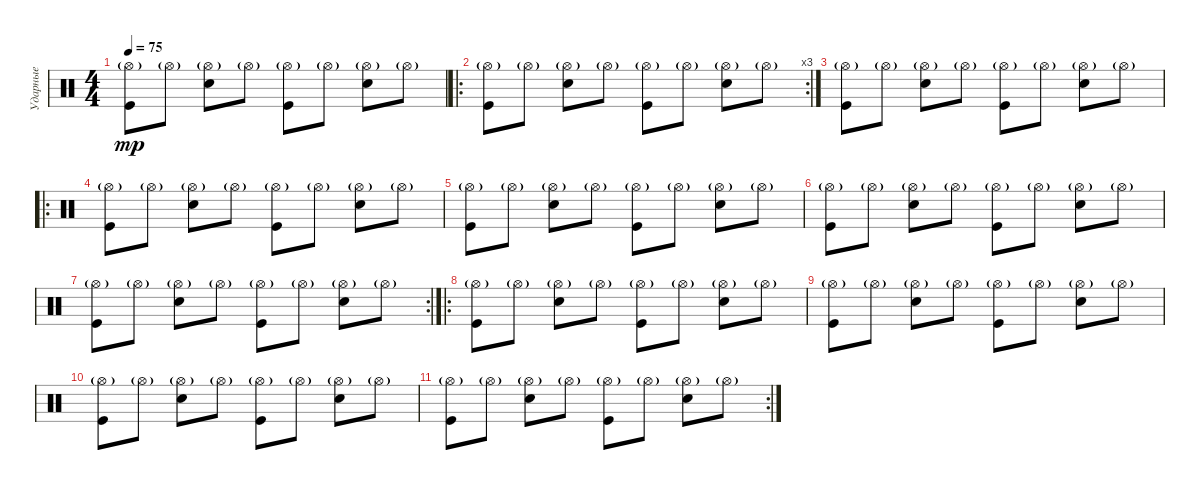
\track ("Ударные" "Ударные") {instrument percussion}
\staff {score}
\articulation defaults
\ts (4 4)
\tempo 75
\clef neutral
\ks c
("Kick (hit)" "Hi-Hat (open)"{g}).8{dy mp} "Hi-Hat (open)"{g}.8 ("Snare (hit) 2" "Hi-Hat (open)"{g}).8 "Hi-Hat (open)"{g}.8 ("Kick (hit)" "Hi-Hat (open)"{g}).8 "Hi-Hat (open)"{g}.8 ("Snare (hit) 2" "Hi-Hat (open)"{g}).8 "Hi-Hat (open)"{g}.8 |
\ro
\rc 3
("Kick (hit)" "Hi-Hat (open)"{g}).8 "Hi-Hat (open)"{g}.8 ("Snare (hit) 2" "Hi-Hat (open)"{g}).8 "Hi-Hat (open)"{g}.8 ("Kick (hit)" "Hi-Hat (open)"{g}).8 "Hi-Hat (open)"{g}.8 ("Snare (hit) 2" "Hi-Hat (open)"{g}).8 "Hi-Hat (open)"{g}.8 |
("Kick (hit)" "Hi-Hat (open)"{g}).8 "Hi-Hat (open)"{g}.8 ("Snare (hit) 2" "Hi-Hat (open)"{g}).8 "Hi-Hat (open)"{g}.8 ("Kick (hit)" "Hi-Hat (open)"{g}).8 "Hi-Hat (open)"{g}.8 ("Snare (hit) 2" "Hi-Hat (open)"{g}).8 "Hi-Hat (open)"{g}.8 |
\ro
("Kick (hit)" "Hi-Hat (open)"{g}).8 "Hi-Hat (open)"{g}.8 ("Snare (hit) 2" "Hi-Hat (open)"{g}).8 "Hi-Hat (open)"{g}.8 ("Kick (hit)" "Hi-Hat (open)"{g}).8 "Hi-Hat (open)"{g}.8 ("Snare (hit) 2" "Hi-Hat (open)"{g}).8 "Hi-Hat (open)"{g}.8 |
("Kick (hit)" "Hi-Hat (open)"{g}).8 "Hi-Hat (open)"{g}.8 ("Snare (hit) 2" "Hi-Hat (open)"{g}).8 "Hi-Hat (open)"{g}.8 ("Kick (hit)" "Hi-Hat (open)"{g}).8 "Hi-Hat (open)"{g}.8 ("Snare (hit) 2" "Hi-Hat (open)"{g}).8 "Hi-Hat (open)"{g}.8 |
("Kick (hit)" "Hi-Hat (open)"{g}).8 "Hi-Hat (open)"{g}.8 ("Snare (hit) 2" "Hi-Hat (open)"{g}).8 "Hi-Hat (open)"{g}.8 ("Kick (hit)" "Hi-Hat (open)"{g}).8 "Hi-Hat (open)"{g}.8 ("Snare (hit) 2" "Hi-Hat (open)"{g}).8 "Hi-Hat (open)"{g}.8 |
\rc 2
("Kick (hit)" "Hi-Hat (open)"{g}).8 "Hi-Hat (open)"{g}.8 ("Snare (hit) 2" "Hi-Hat (open)"{g}).8 "Hi-Hat (open)"{g}.8 ("Kick (hit)" "Hi-Hat (open)"{g}).8 "Hi-Hat (open)"{g}.8 ("Snare (hit) 2" "Hi-Hat (open)"{g}).8 "Hi-Hat (open)"{g}.8 |
\ro
("Kick (hit)" "Hi-Hat (open)"{g}).8 "Hi-Hat (open)"{g}.8 ("Snare (hit) 2" "Hi-Hat (open)"{g}).8 "Hi-Hat (open)"{g}.8 ("Kick (hit)" "Hi-Hat (open)"{g}).8 "Hi-Hat (open)"{g}.8 ("Snare (hit) 2" "Hi-Hat (open)"{g}).8 "Hi-Hat (open)"{g}.8 |
("Kick (hit)" "Hi-Hat (open)"{g}).8 "Hi-Hat (open)"{g}.8 ("Snare (hit) 2" "Hi-Hat (open)"{g}).8 "Hi-Hat (open)"{g}.8 ("Kick (hit)" "Hi-Hat (open)"{g}).8 "Hi-Hat (open)"{g}.8 ("Snare (hit) 2" "Hi-Hat (open)"{g}).8 "Hi-Hat (open)"{g}.8 |
("Kick (hit)" "Hi-Hat (open)"{g}).8 "Hi-Hat (open)"{g}.8 ("Snare (hit) 2" "Hi-Hat (open)"{g}).8 "Hi-Hat (open)"{g}.8 ("Kick (hit)" "Hi-Hat (open)"{g}).8 "Hi-Hat (open)"{g}.8 ("Snare (hit) 2" "Hi-Hat (open)"{g}).8 "Hi-Hat (open)"{g}.8 |
\rc 2
("Kick (hit)" "Hi-Hat (open)"{g}).8 "Hi-Hat (open)"{g}.8 ("Snare (hit) 2" "Hi-Hat (open)"{g}).8 "Hi-Hat (open)"{g}.8 ("Kick (hit)" "Hi-Hat (open)"{g}).8 "Hi-Hat (open)"{g}.8 ("Snare (hit) 2" "Hi-Hat (open)"{g}).8 "Hi-Hat (open)"{g}.8
